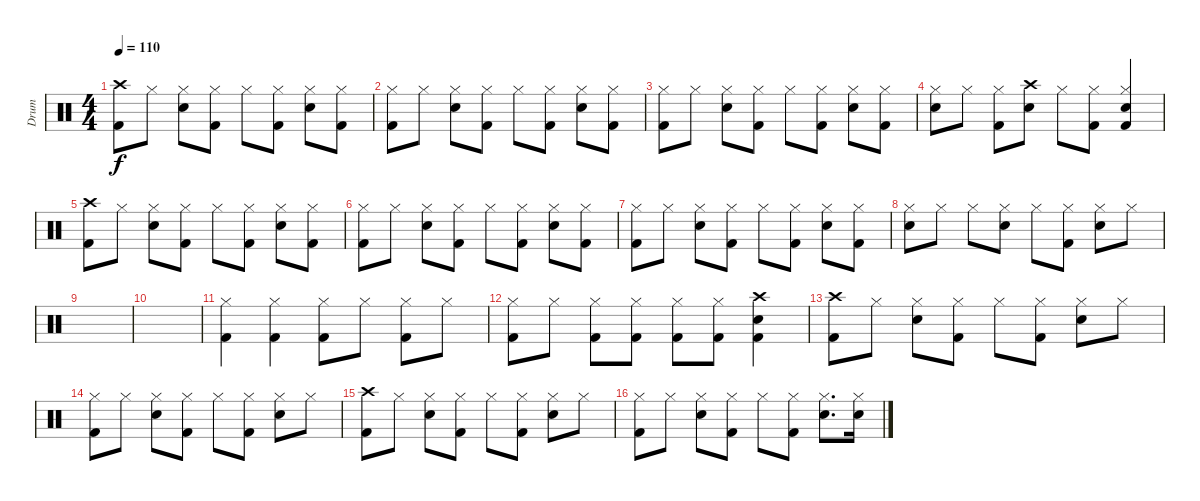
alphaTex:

\track ("Drum" "Drum") {instrument percussion}
\staff {score}
\articulation defaults
\ts (4 4)
\tempo 110
\clef neutral
\ks c
("Crash high (hit)" "Kick (hit) 2").8{dy f} "Hi-Hat (closed)".8 ("Hi-Hat (closed)" "Electric Snare (hit)").8 ("Hi-Hat (closed)" "Kick (hit) 2").8 "Hi-Hat (closed)".8 ("Hi-Hat (closed)" "Kick (hit) 2").8 ("Hi-Hat (closed)" "Electric Snare (hit)").8 ("Hi-Hat (closed)" "Kick (hit) 2").8 |
("Hi-Hat (closed)" "Kick (hit) 2").8 "Hi-Hat (closed)".8 ("Hi-Hat (closed)" "Electric Snare (hit)").8 ("Hi-Hat (closed)" "Kick (hit) 2").8 "Hi-Hat (closed)".8 ("Hi-Hat (closed)" "Kick (hit) 2").8 ("Hi-Hat (closed)" "Electric Snare (hit)").8 ("Hi-Hat (closed)" "Kick (hit) 2").8 |
("Hi-Hat (closed)" "Kick (hit) 2").8 "Hi-Hat (closed)".8 ("Hi-Hat (closed)" "Electric Snare (hit)").8 ("Hi-Hat (closed)" "Kick (hit) 2").8 "Hi-Hat (closed)".8 ("Hi-Hat (closed)" "Kick (hit) 2").8 ("Hi-Hat (closed)" "Electric Snare (hit)").8 ("Hi-Hat (closed)" "Kick (hit) 2").8 |
("Hi-Hat (closed)" "Electric Snare (hit)").8 "Hi-Hat (closed)".8 ("Hi-Hat (closed)" "Kick (hit) 2").8 ("Crash high (hit)" "Electric Snare (hit)").8 "Hi-Hat (closed)".8 ("Hi-Hat (closed)" "Kick (hit) 2").8 ("Hi-Hat (closed)" "Electric Snare (hit)" "Kick (hit) 2").4 |
("Crash high (hit)" "Kick (hit) 2").8 "Hi-Hat (closed)".8 ("Hi-Hat (closed)" "Electric Snare (hit)").8 ("Hi-Hat (closed)" "Kick (hit) 2").8 "Hi-Hat (closed)".8 ("Hi-Hat (closed)" "Kick (hit) 2").8 ("Hi-Hat (closed)" "Electric Snare (hit)").8 ("Hi-Hat (closed)" "Kick (hit) 2").8 |
("Hi-Hat (closed)" "Kick (hit) 2").8 "Hi-Hat (closed)".8 ("Hi-Hat (closed)" "Electric Snare (hit)").8 ("Hi-Hat (closed)" "Kick (hit) 2").8 "Hi-Hat (closed)".8 ("Hi-Hat (closed)" "Kick (hit) 2").8 ("Hi-Hat (closed)" "Electric Snare (hit)").8 ("Hi-Hat (closed)" "Kick (hit) 2").8 |
("Hi-Hat (closed)" "Kick (hit) 2").8 "Hi-Hat (closed)".8 ("Hi-Hat (closed)" "Electric Snare (hit)").8 ("Hi-Hat (closed)" "Kick (hit) 2").8 "Hi-Hat (closed)".8 ("Hi-Hat (closed)" "Kick (hit) 2").8 ("Hi-Hat (closed)" "Electric Snare (hit)").8 ("Hi-Hat (closed)" "Kick (hit) 2").8 |
("Hi-Hat (closed)" "Electric Snare (hit)").8 "Hi-Hat (closed)".8 "Hi-Hat (closed)".8 ("Hi-Hat (closed)" "Electric Snare (hit)").8 "Hi-Hat (closed)".8 ("Hi-Hat (closed)" "Kick (hit) 2").8 ("Hi-Hat (closed)" "Electric Snare (hit)").8 "Hi-Hat (closed)".8 |
|
|
("Hi-Hat (closed)" "Kick (hit) 2").4 ("Hi-Hat (closed)" "Kick (hit) 2").4 ("Hi-Hat (closed)" "Kick (hit) 2").8 "Hi-Hat (closed)".8 ("Hi-Hat (closed)" "Kick (hit) 2").8 "Hi-Hat (closed)".8 |
("Hi-Hat (closed)" "Kick (hit) 2").8 "Hi-Hat (closed)".8 ("Hi-Hat (closed)" "Kick (hit) 2").8 ("Hi-Hat (closed)" "Kick (hit) 2").8 ("Hi-Hat (closed)" "Kick (hit) 2").8 ("Hi-Hat (closed)" "Kick (hit) 2").8 ("Crash high (hit)" "Electric Snare (hit)" "Kick (hit) 2").4 |
("Crash high (hit)" "Kick (hit) 2").8 "Hi-Hat (closed)".8 ("Hi-Hat (closed)" "Electric Snare (hit)").8 ("Hi-Hat (closed)" "Kick (hit) 2").8 "Hi-Hat (closed)".8 ("Hi-Hat (closed)" "Kick (hit) 2").8 ("Hi-Hat (closed)" "Electric Snare (hit)").8 "Hi-Hat (closed)".8 |
("Hi-Hat (closed)" "Kick (hit) 2").8 "Hi-Hat (closed)".8 ("Hi-Hat (closed)" "Electric Snare (hit)").8 ("Hi-Hat (closed)" "Kick (hit) 2").8 "Hi-Hat (closed)".8 ("Hi-Hat (closed)" "Kick (hit) 2").8 ("Hi-Hat (closed)" "Electric Snare (hit)").8 "Hi-Hat (closed)".8 |
("Crash high (hit)" "Kick (hit) 2").8 "Hi-Hat (closed)".8 ("Hi-Hat (closed)" "Electric Snare (hit)").8 ("Hi-Hat (closed)" "Kick (hit) 2").8 "Hi-Hat (closed)".8 ("Hi-Hat (closed)" "Kick (hit) 2").8 ("Hi-Hat (closed)" "Electric Snare (hit)").8 "Hi-Hat (closed)".8 |
("Hi-Hat (closed)" "Kick (hit) 2").8 "Hi-Hat (closed)".8 ("Hi-Hat (closed)" "Electric Snare (hit)").8 ("Hi-Hat (closed)" "Kick (hit) 2").8 "Hi-Hat (closed)".8 ("Hi-Hat (closed)" "Kick (hit) 2").8 ("Hi-Hat (closed)" "Electric Snare (hit)").8{d} ("Hi-Hat (closed)" "Electric Snare (hit)").16
